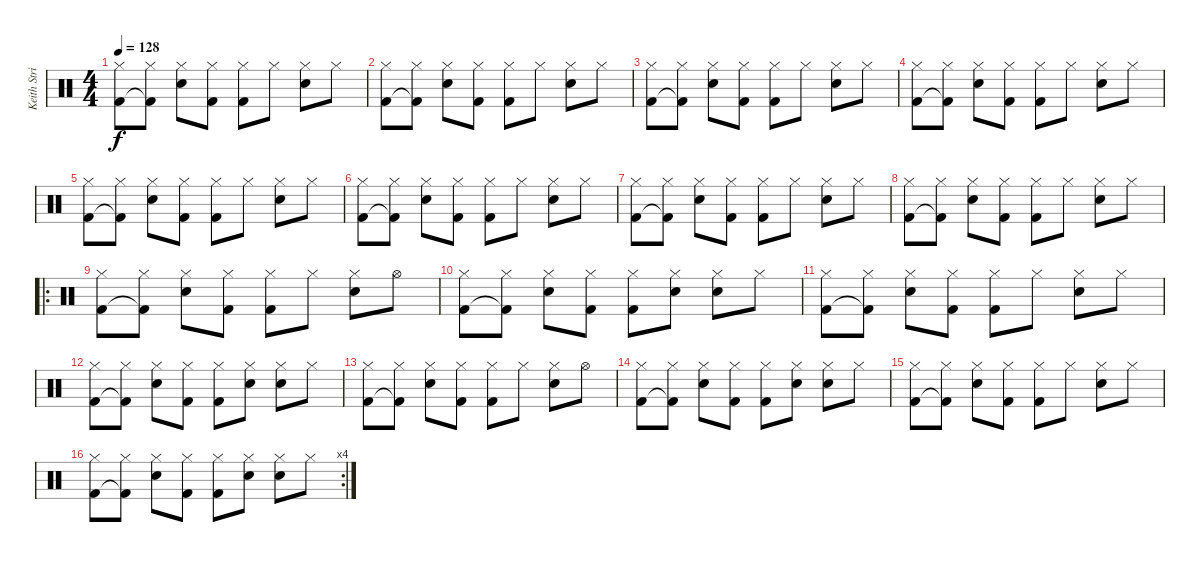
\track ("Keith Strickland (drums)" "Keith Stri") {instrument percussion}
\staff {score}
\articulation defaults
\ts (4 4)
\tempo 128
\clef neutral
\ks c
("Hi-Hat (closed)" "Kick (hit) 2").8{dy f} ("Hi-Hat (closed)" "Kick (hit) 2"{t}).8 ("Hi-Hat (closed)" "Snare (hit) 2").8 ("Hi-Hat (closed)" "Kick (hit) 2").8 ("Hi-Hat (closed)" "Kick (hit) 2").8 "Hi-Hat (closed)".8 ("Hi-Hat (closed)" "Snare (hit) 2").8 "Hi-Hat (closed)".8 |
("Hi-Hat (closed)" "Kick (hit) 2").8 ("Hi-Hat (closed)" "Kick (hit) 2"{t}).8 ("Hi-Hat (closed)" "Snare (hit) 2").8 ("Hi-Hat (closed)" "Kick (hit) 2").8 ("Hi-Hat (closed)" "Kick (hit) 2").8 "Hi-Hat (closed)".8 ("Hi-Hat (closed)" "Snare (hit) 2").8 "Hi-Hat (closed)".8 |
("Hi-Hat (closed)" "Kick (hit) 2").8 ("Hi-Hat (closed)" "Kick (hit) 2"{t}).8 ("Hi-Hat (closed)" "Snare (hit) 2").8 ("Hi-Hat (closed)" "Kick (hit) 2").8 ("Hi-Hat (closed)" "Kick (hit) 2").8 "Hi-Hat (closed)".8 ("Hi-Hat (closed)" "Snare (hit) 2").8 "Hi-Hat (closed)".8 |
("Hi-Hat (closed)" "Kick (hit) 2").8 ("Hi-Hat (closed)" "Kick (hit) 2"{t}).8 ("Hi-Hat (closed)" "Snare (hit) 2").8 ("Hi-Hat (closed)" "Kick (hit) 2").8 ("Hi-Hat (closed)" "Kick (hit) 2").8 "Hi-Hat (closed)".8 ("Hi-Hat (closed)" "Snare (hit) 2").8 "Hi-Hat (closed)".8 |
("Hi-Hat (closed)" "Kick (hit) 2").8 ("Hi-Hat (closed)" "Kick (hit) 2"{t}).8 ("Hi-Hat (closed)" "Snare (hit) 2").8 ("Hi-Hat (closed)" "Kick (hit) 2").8 ("Hi-Hat (closed)" "Kick (hit) 2").8 "Hi-Hat (closed)".8 ("Hi-Hat (closed)" "Snare (hit) 2").8 "Hi-Hat (closed)".8 |
("Hi-Hat (closed)" "Kick (hit) 2").8 ("Hi-Hat (closed)" "Kick (hit) 2"{t}).8 ("Hi-Hat (closed)" "Snare (hit) 2").8 ("Hi-Hat (closed)" "Kick (hit) 2").8 ("Hi-Hat (closed)" "Kick (hit) 2").8 "Hi-Hat (closed)".8 ("Hi-Hat (closed)" "Snare (hit) 2").8 "Hi-Hat (closed)".8 |
("Hi-Hat (closed)" "Kick (hit) 2").8 ("Hi-Hat (closed)" "Kick (hit) 2"{t}).8 ("Hi-Hat (closed)" "Snare (hit) 2").8 ("Hi-Hat (closed)" "Kick (hit) 2").8 ("Hi-Hat (closed)" "Kick (hit) 2").8 "Hi-Hat (closed)".8 ("Hi-Hat (closed)" "Snare (hit) 2").8 "Hi-Hat (closed)".8 |
("Hi-Hat (closed)" "Kick (hit) 2").8 ("Hi-Hat (closed)" "Kick (hit) 2"{t}).8 ("Hi-Hat (closed)" "Snare (hit) 2").8 ("Hi-Hat (closed)" "Kick (hit) 2").8 ("Hi-Hat (closed)" "Kick (hit) 2").8 "Hi-Hat (closed)".8 ("Hi-Hat (closed)" "Snare (hit) 2").8 "Hi-Hat (closed)".8 |
\ro
("Hi-Hat (closed)" "Kick (hit) 2").8 ("Hi-Hat (closed)" "Kick (hit) 2"{t}).8 ("Hi-Hat (closed)" "Snare (hit) 2").8 ("Hi-Hat (closed)" "Kick (hit) 2").8 ("Hi-Hat (closed)" "Kick (hit) 2").8 "Hi-Hat (closed)".8 ("Hi-Hat (closed)" "Snare (hit) 2").8 "Hi-Hat (open)".8 |
("Hi-Hat (closed)" "Kick (hit) 2").8 ("Hi-Hat (closed)" "Kick (hit) 2"{t}).8 ("Hi-Hat (closed)" "Snare (hit) 2").8 ("Hi-Hat (closed)" "Kick (hit) 2").8 ("Hi-Hat (closed)" "Kick (hit) 2").8 ("Hi-Hat (closed)" "Snare (hit) 2").8 ("Hi-Hat (closed)" "Snare (hit) 2").8 "Hi-Hat (closed)".8 |
("Hi-Hat (closed)" "Kick (hit) 2").8 ("Hi-Hat (closed)" "Kick (hit) 2"{t}).8 ("Hi-Hat (closed)" "Snare (hit) 2").8 ("Hi-Hat (closed)" "Kick (hit) 2").8 ("Hi-Hat (closed)" "Kick (hit) 2").8 "Hi-Hat (closed)".8 ("Hi-Hat (closed)" "Snare (hit) 2").8 "Hi-Hat (closed)".8 |
("Hi-Hat (closed)" "Kick (hit) 2").8 ("Hi-Hat (closed)" "Kick (hit) 2"{t}).8 ("Hi-Hat (closed)" "Snare (hit) 2").8 ("Hi-Hat (closed)" "Kick (hit) 2").8 ("Hi-Hat (closed)" "Kick (hit) 2").8 ("Hi-Hat (closed)" "Snare (hit) 2").8 ("Hi-Hat (closed)" "Snare (hit) 2").8 "Hi-Hat (closed)".8 |
("Hi-Hat (closed)" "Kick (hit) 2").8 ("Hi-Hat (closed)" "Kick (hit) 2"{t}).8 ("Hi-Hat (closed)" "Snare (hit) 2").8 ("Hi-Hat (closed)" "Kick (hit) 2").8 ("Hi-Hat (closed)" "Kick (hit) 2").8 "Hi-Hat (closed)".8 ("Hi-Hat (closed)" "Snare (hit) 2").8 "Hi-Hat (open)".8 |
("Hi-Hat (closed)" "Kick (hit) 2").8 ("Hi-Hat (closed)" "Kick (hit) 2"{t}).8 ("Hi-Hat (closed)" "Snare (hit) 2").8 ("Hi-Hat (closed)" "Kick (hit) 2").8 ("Hi-Hat (closed)" "Kick (hit) 2").8 ("Hi-Hat (closed)" "Snare (hit) 2").8 ("Hi-Hat (closed)" "Snare (hit) 2").8 "Hi-Hat (closed)".8 |
("Hi-Hat (closed)" "Kick (hit) 2").8 ("Hi-Hat (closed)" "Kick (hit) 2"{t}).8 ("Hi-Hat (closed)" "Snare (hit) 2").8 ("Hi-Hat (closed)" "Kick (hit) 2").8 ("Hi-Hat (closed)" "Kick (hit) 2").8 "Hi-Hat (closed)".8 ("Hi-Hat (closed)" "Snare (hit) 2").8 "Hi-Hat (closed)".8 |
\rc 4
("Hi-Hat (closed)" "Kick (hit) 2").8 ("Hi-Hat (closed)" "Kick (hit) 2"{t}).8 ("Hi-Hat (closed)" "Snare (hit) 2").8 ("Hi-Hat (closed)" "Kick (hit) 2").8 ("Hi-Hat (closed)" "Kick (hit) 2").8 ("Hi-Hat (closed)" "Snare (hit) 2").8 ("Hi-Hat (closed)" "Snare (hit) 2").8 "Hi-Hat (closed)".8
